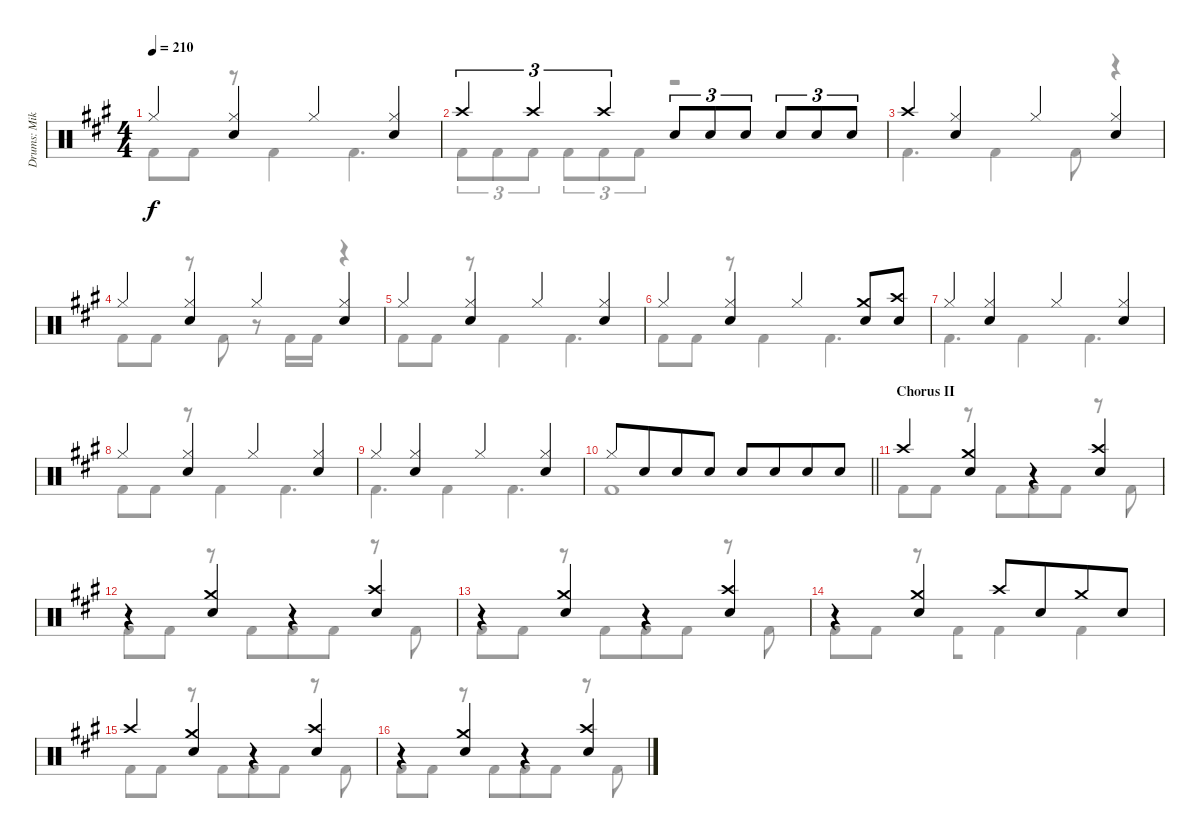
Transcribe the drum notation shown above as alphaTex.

\track ("Drums: Mikkey" "Drums: Mik") {instrument percussion}
\staff {score}
\articulation defaults
\voice
\ts (4 4)
\tempo 210
\clef neutral
\ks a "Hi-Hat (closed)".4{dy f}
("Hi-Hat (closed)" "Snare (hit) 2").4 "Hi-Hat (closed)".4 ("Hi-Hat (closed)" "Snare (hit) 2").4 |
"Crash high (hit)".4{tu (3 2)} "Crash high (hit)".4{tu (3 2)} "Crash high (hit)".4{tu (3 2)} "Snare (hit) 2".8{tu (3 2)} "Snare (hit) 2".8{tu (3 2)} "Snare (hit) 2".8{tu (3 2)} "Snare (hit) 2".8{tu (3 2)} "Snare (hit) 2".8{tu (3 2)} "Snare (hit) 2".8{tu (3 2)} |
"Crash high (hit)".4 ("Hi-Hat (closed)" "Snare (hit) 2").4 "Hi-Hat (closed)".4 ("Hi-Hat (closed)" "Snare (hit) 2").4 |
"Hi-Hat (closed)".4 ("Hi-Hat (closed)" "Snare (hit) 2").4 "Hi-Hat (closed)".4 ("Hi-Hat (closed)" "Snare (hit) 2").4 |
"Hi-Hat (closed)".4 ("Hi-Hat (closed)" "Snare (hit) 2").4 "Hi-Hat (closed)".4 ("Hi-Hat (closed)" "Snare (hit) 2").4 |
"Hi-Hat (closed)".4 ("Hi-Hat (closed)" "Snare (hit) 2").4 "Hi-Hat (closed)".4 ("Crash medium (hit)" "Snare (hit) 2").8 ("Crash high (hit)" "Snare (hit) 2").8 |
"Hi-Hat (closed)".4 ("Hi-Hat (closed)" "Snare (hit) 2").4 "Hi-Hat (closed)".4 ("Hi-Hat (closed)" "Snare (hit) 2").4 |
"Hi-Hat (closed)".4 ("Hi-Hat (closed)" "Snare (hit) 2").4 "Hi-Hat (closed)".4 ("Hi-Hat (closed)" "Snare (hit) 2").4 |
"Hi-Hat (closed)".4 ("Hi-Hat (closed)" "Snare (hit) 2").4 "Hi-Hat (closed)".4 ("Hi-Hat (closed)" "Snare (hit) 2").4 |
\barLineRight lightlight "Hi-Hat (closed)".8 "Snare (hit) 2".8{beam merge} "Snare (hit) 2".8 "Snare (hit) 2".8 "Snare (hit) 2".8 "Snare (hit) 2".8{beam merge} "Snare (hit) 2".8 "Snare (hit) 2".8
|
\section ("" "Chorus II")
"Crash high (hit)".4 ("Crash medium (hit)" "Snare (hit) 2").4 r.4 ("Crash high (hit)" "Snare (hit) 2").4 |
r.4 ("Crash medium (hit)" "Snare (hit) 2").4 r.4 ("Crash high (hit)" "Snare (hit) 2").4 |
r.4 ("Crash medium (hit)" "Snare (hit) 2").4 r.4 ("Crash high (hit)" "Snare (hit) 2").4 |
r.4 ("Crash medium (hit)" "Snare (hit) 2").4 "Crash high (hit)".8 "Snare (hit) 2".8{beam merge} "Crash medium (hit)".8 "Snare (hit) 2".8 |
"Crash high (hit)".4 ("Crash medium (hit)" "Snare (hit) 2").4 r.4 ("Crash high (hit)" "Snare (hit) 2").4 |
r.4 ("Crash medium (hit)" "Snare (hit) 2").4 r.4 ("Crash high (hit)" "Snare (hit) 2").4
\voice
\clef neutral
\ottava regular
\simile none
\ks a "Kick (hit) 2".8{dy f} "Kick (hit) 2".8
r.8 "Kick (hit) 2".4 "Kick (hit) 2".4{d} |
"Kick (hit) 2".8{tu (3 2)} "Kick (hit) 2".8{tu (3 2)} "Kick (hit) 2".8{tu (3 2)} "Kick (hit) 2".8{tu (3 2)} "Kick (hit) 2".8{tu (3 2)} "Kick (hit) 2".8{tu (3 2)} r.2 |
"Kick (hit) 2".4{d} "Kick (hit) 2".4 "Kick (hit) 2".8 r.4 |
"Kick (hit) 2".8 "Kick (hit) 2".8 r.8 "Kick (hit) 2".8 r.8 "Kick (hit) 2".16 "Kick (hit) 2".16 r.4 |
"Kick (hit) 2".8 "Kick (hit) 2".8 r.8 "Kick (hit) 2".4 "Kick (hit) 2".4{d} |
"Kick (hit) 2".8 "Kick (hit) 2".8 r.8 "Kick (hit) 2".4 "Kick (hit) 2".4{d} |
"Kick (hit) 2".4{d} "Kick (hit) 2".4 "Kick (hit) 2".4{d} |
"Kick (hit) 2".8 "Kick (hit) 2".8 r.8 "Kick (hit) 2".4 "Kick (hit) 2".4{d} |
"Kick (hit) 2".4{d} "Kick (hit) 2".4 "Kick (hit) 2".4{d} |
\barLineRight lightlight "Kick (hit) 2".1
|
"Kick (hit) 2".8 "Kick (hit) 2".8 r.8 "Kick (hit) 2".8{beam merge} "Kick (hit) 2".8 "Kick (hit) 2".8 r.8 "Kick (hit) 2".8 |
"Kick (hit) 2".8 "Kick (hit) 2".8 r.8 "Kick (hit) 2".8{beam merge} "Kick (hit) 2".8 "Kick (hit) 2".8 r.8 "Kick (hit) 2".8 |
"Kick (hit) 2".8 "Kick (hit) 2".8 r.8 "Kick (hit) 2".8{beam merge} "Kick (hit) 2".8 "Kick (hit) 2".8 r.8 "Kick (hit) 2".8 |
"Kick (hit) 2".8 "Kick (hit) 2".8 r.8 "Kick (hit) 2".8{beam merge} "Kick (hit) 2".4 "Kick (hit) 2".4 |
"Kick (hit) 2".8 "Kick (hit) 2".8 r.8 "Kick (hit) 2".8{beam merge} "Kick (hit) 2".8 "Kick (hit) 2".8 r.8 "Kick (hit) 2".8 |
"Kick (hit) 2".8 "Kick (hit) 2".8 r.8 "Kick (hit) 2".8{beam merge} "Kick (hit) 2".8 "Kick (hit) 2".8 r.8 "Kick (hit) 2".8
